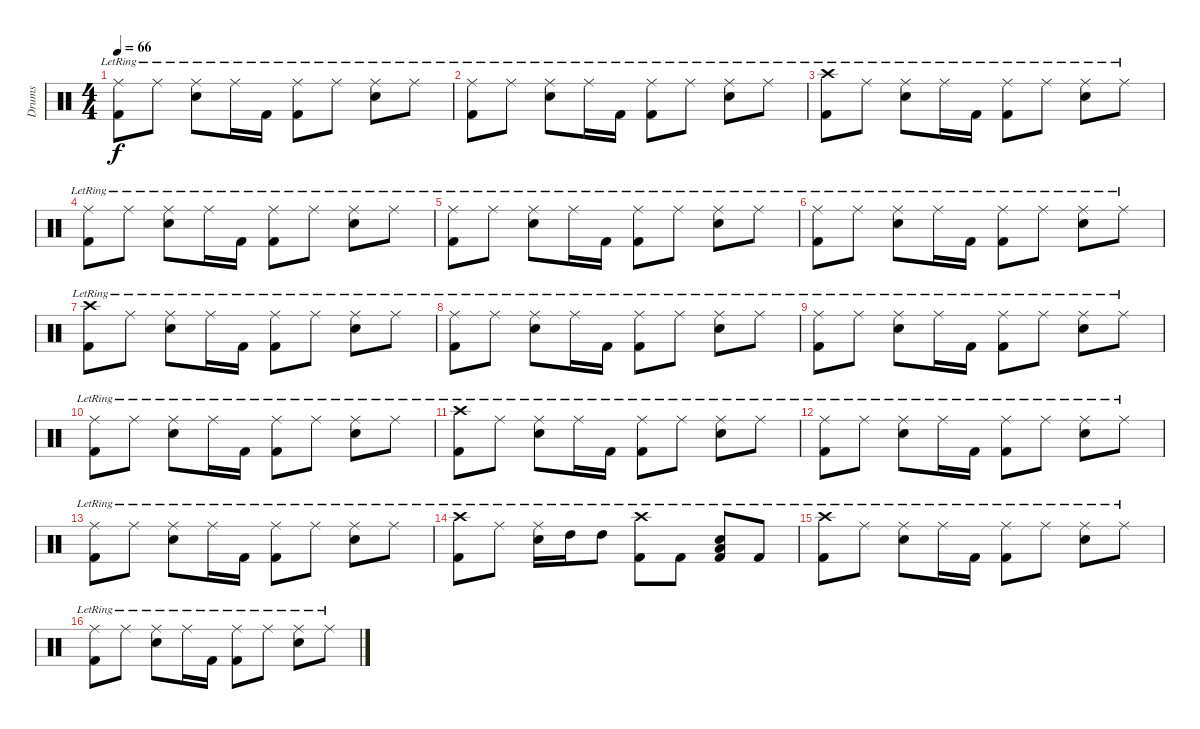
\track ("Drums" "Drums") {instrument percussion}
\staff {score}
\articulation defaults
\ts (4 4)
\tempo 66
\clef neutral
\ks c
("Ride (middle)"{lr} "Kick (hit) 2"{lr}).8{dy f} "Ride (middle)"{lr}.8 ("Snare (hit) 2"{lr} "Ride (middle)"{lr}).8 "Ride (middle)"{lr}.16 "Kick (hit) 2"{lr}.16 ("Kick (hit) 2"{lr} "Ride (middle)"{lr}).8 "Ride (middle)"{lr}.8 ("Snare (hit) 2"{lr} "Ride (middle)"{lr}).8 "Ride (middle)"{lr}.8 |
("Ride (middle)"{lr} "Kick (hit) 2"{lr}).8 "Ride (middle)"{lr}.8 ("Snare (hit) 2"{lr} "Ride (middle)"{lr}).8 "Ride (middle)"{lr}.16 "Kick (hit) 2"{lr}.16 ("Kick (hit) 2"{lr} "Ride (middle)"{lr}).8 "Ride (middle)"{lr}.8 ("Snare (hit) 2"{lr} "Ride (middle)"{lr}).8 "Ride (middle)"{lr}.8 |
("Crash high (hit)"{lr} "Kick (hit) 2"{lr}).8 "Ride (middle)"{lr}.8 ("Snare (hit) 2"{lr} "Ride (middle)"{lr}).8 "Ride (middle)"{lr}.16 "Kick (hit) 2"{lr}.16 ("Kick (hit) 2"{lr} "Ride (middle)"{lr}).8 "Ride (middle)"{lr}.8 ("Snare (hit) 2"{lr} "Ride (middle)"{lr}).8 "Ride (middle)"{lr}.8 |
("Ride (middle)"{lr} "Kick (hit) 2"{lr}).8 "Ride (middle)"{lr}.8 ("Snare (hit) 2"{lr} "Ride (middle)"{lr}).8 "Ride (middle)"{lr}.16 "Kick (hit) 2"{lr}.16 ("Kick (hit) 2"{lr} "Ride (middle)"{lr}).8 "Ride (middle)"{lr}.8 ("Snare (hit) 2"{lr} "Ride (middle)"{lr}).8 "Ride (middle)"{lr}.8 |
("Ride (middle)"{lr} "Kick (hit) 2"{lr}).8 "Ride (middle)"{lr}.8 ("Snare (hit) 2"{lr} "Ride (middle)"{lr}).8 "Ride (middle)"{lr}.16 "Kick (hit) 2"{lr}.16 ("Kick (hit) 2"{lr} "Ride (middle)"{lr}).8 "Ride (middle)"{lr}.8 ("Snare (hit) 2"{lr} "Ride (middle)"{lr}).8 "Ride (middle)"{lr}.8 |
("Ride (middle)"{lr} "Kick (hit) 2"{lr}).8 "Ride (middle)"{lr}.8 ("Snare (hit) 2"{lr} "Ride (middle)"{lr}).8 "Ride (middle)"{lr}.16 "Kick (hit) 2"{lr}.16 ("Kick (hit) 2"{lr} "Ride (middle)"{lr}).8 "Ride (middle)"{lr}.8 ("Snare (hit) 2"{lr} "Ride (middle)"{lr}).8 "Ride (middle)"{lr}.8 |
("Crash high (hit)"{lr} "Kick (hit) 2"{lr}).8 "Ride (middle)"{lr}.8 ("Snare (hit) 2"{lr} "Ride (middle)"{lr}).8 "Ride (middle)"{lr}.16 "Kick (hit) 2"{lr}.16 ("Kick (hit) 2"{lr} "Ride (middle)"{lr}).8 "Ride (middle)"{lr}.8 ("Snare (hit) 2"{lr} "Ride (middle)"{lr}).8 "Ride (middle)"{lr}.8 |
("Ride (middle)"{lr} "Kick (hit) 2"{lr}).8 "Ride (middle)"{lr}.8 ("Snare (hit) 2"{lr} "Ride (middle)"{lr}).8 "Ride (middle)"{lr}.16 "Kick (hit) 2"{lr}.16 ("Kick (hit) 2"{lr} "Ride (middle)"{lr}).8 "Ride (middle)"{lr}.8 ("Snare (hit) 2"{lr} "Ride (middle)"{lr}).8 "Ride (middle)"{lr}.8 |
("Ride (middle)"{lr} "Kick (hit) 2"{lr}).8 "Ride (middle)"{lr}.8 ("Snare (hit) 2"{lr} "Ride (middle)"{lr}).8 "Ride (middle)"{lr}.16 "Kick (hit) 2"{lr}.16 ("Kick (hit) 2"{lr} "Ride (middle)"{lr}).8 "Ride (middle)"{lr}.8 ("Snare (hit) 2"{lr} "Ride (middle)"{lr}).8 "Ride (middle)"{lr}.8 |
("Ride (middle)"{lr} "Kick (hit) 2"{lr}).8 "Ride (middle)"{lr}.8 ("Snare (hit) 2"{lr} "Ride (middle)"{lr}).8 "Ride (middle)"{lr}.16 "Kick (hit) 2"{lr}.16 ("Kick (hit) 2"{lr} "Ride (middle)"{lr}).8 "Ride (middle)"{lr}.8 ("Snare (hit) 2"{lr} "Ride (middle)"{lr}).8 "Ride (middle)"{lr}.8 |
("Crash high (hit)"{lr} "Kick (hit) 2"{lr}).8 "Ride (middle)"{lr}.8 ("Snare (hit) 2"{lr} "Ride (middle)"{lr}).8 "Ride (middle)"{lr}.16 "Kick (hit) 2"{lr}.16 ("Kick (hit) 2"{lr} "Ride (middle)"{lr}).8 "Ride (middle)"{lr}.8 ("Snare (hit) 2"{lr} "Ride (middle)"{lr}).8 "Ride (middle)"{lr}.8 |
("Ride (middle)"{lr} "Kick (hit) 2"{lr}).8 "Ride (middle)"{lr}.8 ("Snare (hit) 2"{lr} "Ride (middle)"{lr}).8 "Ride (middle)"{lr}.16 "Kick (hit) 2"{lr}.16 ("Kick (hit) 2"{lr} "Ride (middle)"{lr}).8 "Ride (middle)"{lr}.8 ("Snare (hit) 2"{lr} "Ride (middle)"{lr}).8 "Ride (middle)"{lr}.8 |
("Ride (middle)"{lr} "Kick (hit) 2"{lr}).8 "Ride (middle)"{lr}.8 ("Snare (hit) 2"{lr} "Ride (middle)"{lr}).8 "Ride (middle)"{lr}.16 "Kick (hit) 2"{lr}.16 ("Kick (hit) 2"{lr} "Ride (middle)"{lr}).8 "Ride (middle)"{lr}.8 ("Snare (hit) 2"{lr} "Ride (middle)"{lr}).8 "Ride (middle)"{lr}.8 |
("Kick (hit) 2"{lr} "Crash high (hit)"{lr}).8 "Ride (middle)"{lr}.8 ("Snare (hit) 2"{lr} "Ride (middle)"{lr}).16 "High Tom (hit)"{lr}.16 "High Tom (hit)"{lr}.8 ("Kick (hit) 2"{lr} "Crash high (hit)"{lr}).8 "Kick (hit) 2"{lr}.8 ("Kick (hit) 2"{lr} "Snare (hit) 2"{lr} "Low Floor Tom (hit)"{lr}).8 "Kick (hit) 2"{lr}.8 |
("Crash high (hit)"{lr} "Kick (hit) 2"{lr}).8 "Ride (middle)"{lr}.8 ("Snare (hit) 2"{lr} "Ride (middle)"{lr}).8 "Ride (middle)"{lr}.16 "Kick (hit) 2"{lr}.16 ("Kick (hit) 2"{lr} "Ride (middle)"{lr}).8 "Ride (middle)"{lr}.8 ("Snare (hit) 2"{lr} "Ride (middle)"{lr}).8 "Ride (middle)"{lr}.8 |
("Ride (middle)"{lr} "Kick (hit) 2"{lr}).8 "Ride (middle)"{lr}.8 ("Snare (hit) 2"{lr} "Ride (middle)"{lr}).8 "Ride (middle)"{lr}.16 "Kick (hit) 2"{lr}.16 ("Kick (hit) 2"{lr} "Ride (middle)"{lr}).8 "Ride (middle)"{lr}.8 ("Snare (hit) 2"{lr} "Ride (middle)"{lr}).8 "Ride (middle)"{lr}.8
